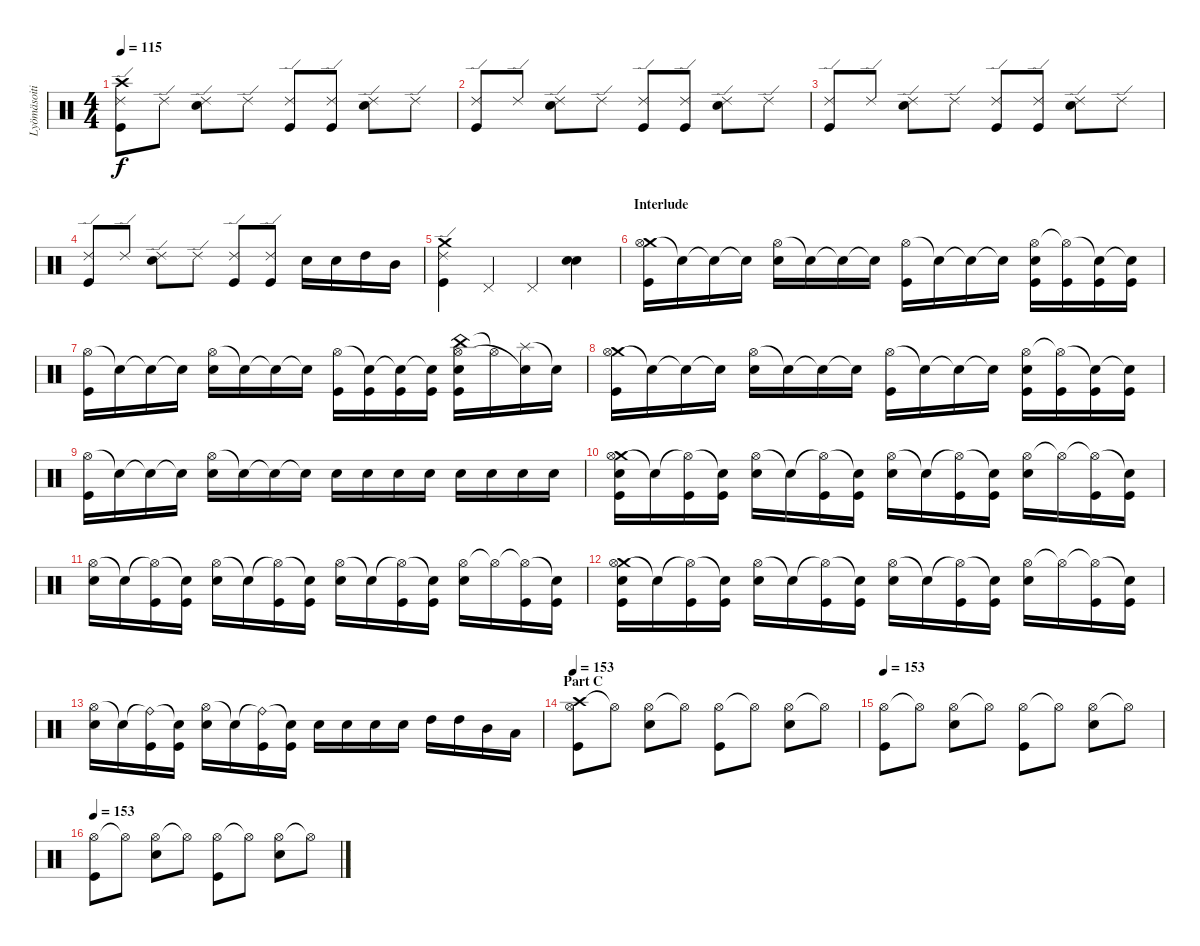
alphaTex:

\track ("Lyömäsoitin" "Lyömäsoiti") {instrument percussion}
\staff {score}
\articulation defaults
\ts (4 4)
\tempo 115
\clef neutral
\ks c
("Crash high (hit)" "Ride (edge) 2" "Kick (hit)").8{dy f} "Ride (edge) 2".8 ("Ride (edge) 2" "Snare (hit) 2").8 "Ride (edge) 2".8 ("Ride (edge) 2" "Kick (hit)").8 ("Ride (edge) 2" "Kick (hit)").8 ("Ride (edge) 2" "Snare (hit) 2").8 "Ride (edge) 2".8 |
("Ride (edge) 2" "Kick (hit)").8 "Ride (edge) 2".8 ("Ride (edge) 2" "Snare (hit) 2").8 "Ride (edge) 2".8 ("Ride (edge) 2" "Kick (hit)").8 ("Ride (edge) 2" "Kick (hit)").8 ("Ride (edge) 2" "Snare (hit) 2").8 "Ride (edge) 2".8 |
("Ride (edge) 2" "Kick (hit)").8 "Ride (edge) 2".8 ("Ride (edge) 2" "Snare (hit) 2").8 "Ride (edge) 2".8 ("Ride (edge) 2" "Kick (hit)").8 ("Ride (edge) 2" "Kick (hit)").8 ("Ride (edge) 2" "Snare (hit) 2").8 "Ride (edge) 2".8 |
("Ride (edge) 2" "Kick (hit)").8 "Ride (edge) 2".8 ("Ride (edge) 2" "Snare (hit) 2").8 "Ride (edge) 2".8 ("Ride (edge) 2" "Kick (hit)").8 ("Ride (edge) 2" "Kick (hit)").8 "Snare (hit) 2".16 "Snare (hit) 2".16 "High Tom (hit)".16 "Mid Tom (hit)".16 |
("Crash medium (hit)" "Ride (edge) 2" "Kick (hit)").4 "Pedal Hi-Hat (hit)".4 "Pedal Hi-Hat (hit)".4 ("Snare (hit) 2" "Snare (hit) 2").4 |
\section ("" "Interlude")
("Crash medium (hit)" "Hi-Hat (open)" "Kick (hit)").16 "Snare (hit)"{t}.16 "Snare (hit)"{t}.16 "Snare (hit)"{t}.16 ("Hi-Hat (open)" "Snare (hit) 2").16 "Snare (hit)"{t}.16 "Snare (hit)"{t}.16 "Snare (hit)"{t}.16 ("Hi-Hat (open)" "Kick (hit)").16 "Snare (hit)"{t}.16 "Snare (hit)"{t}.16 "Snare (hit)"{t}.16 ("Hi-Hat (open)" "Snare (hit) 2" "Kick (hit)").16 ("Hi-Hat (open)"{t} "Kick (hit)").16 ("Snare (hit)"{t} "Kick (hit)").16 ("Snare (hit)"{t} "Kick (hit)").16 |
("Hi-Hat (open)" "Kick (hit)").16 "Snare (hit)"{t}.16 "Snare (hit)"{t}.16 "Snare (hit)"{t}.16 ("Hi-Hat (open)" "Snare (hit) 2").16 "Snare (hit)"{t}.16 "Snare (hit)"{t}.16 "Snare (hit)"{t}.16 ("Hi-Hat (open)" "Kick (hit)").16 ("Snare (hit)"{t} "Kick (hit)").16 ("Snare (hit)"{t} "Kick (hit)").16 ("Snare (hit)"{t} "Kick (hit)").16 ("China (hit)" "Hi-Hat (open)" "Snare (hit) 2" "Kick (hit)").16 "Hi-Hat (open)"{t}.16 ("Splash (hit)" "Snare (hit)"{t}).16 "Snare (hit)"{t}.16 |
("Crash medium (hit)" "Hi-Hat (open)" "Kick (hit)").16 "Snare (hit)"{t}.16 "Snare (hit)"{t}.16 "Snare (hit)"{t}.16 ("Hi-Hat (open)" "Snare (hit) 2").16 "Snare (hit)"{t}.16 "Snare (hit)"{t}.16 "Snare (hit)"{t}.16 ("Hi-Hat (open)" "Kick (hit)").16 "Snare (hit)"{t}.16 "Snare (hit)"{t}.16 "Snare (hit)"{t}.16 ("Hi-Hat (open)" "Snare (hit) 2" "Kick (hit)").16 ("Hi-Hat (open)"{t} "Kick (hit)").16 ("Snare (hit)"{t} "Kick (hit)").16 ("Snare (hit)"{t} "Kick (hit)").16 |
("Hi-Hat (open)" "Kick (hit)").16 "Snare (hit)"{t}.16 "Snare (hit)"{t}.16 "Snare (hit)"{t}.16 ("Hi-Hat (open)" "Snare (hit) 2").16 "Snare (hit)"{t}.16 "Snare (hit)"{t}.16 "Snare (hit)"{t}.16 "Snare (hit) 2".16 "Snare (hit) 2".16 "Snare (hit) 2".16 "Snare (hit) 2".16 "Snare (hit) 2".16 "Snare (hit) 2".16 "Snare (hit) 2".16 "Snare (hit) 2".16 |
("Crash medium (hit)" "Hi-Hat (open)" "Snare (hit) 2" "Kick (hit)").16 "Snare (hit)"{t}.16 ("Hi-Hat (open)"{t} "Kick (hit)").16 ("Snare (hit)"{t} "Kick (hit)").16 ("Hi-Hat (open)" "Snare (hit) 2").16 "Snare (hit)"{t}.16 ("Hi-Hat (open)"{t} "Kick (hit)").16 ("Snare (hit)"{t} "Kick (hit)").16 ("Hi-Hat (open)" "Snare (hit) 2").16 "Snare (hit)"{t}.16 ("Hi-Hat (open)"{t} "Kick (hit)").16 ("Snare (hit)"{t} "Kick (hit)").16 ("Hi-Hat (open)" "Snare (hit) 2").16 "Hi-Hat (open)"{t}.16 ("Hi-Hat (open)"{t} "Kick (hit)").16 ("Snare (hit)"{t} "Kick (hit)").16 |
("Hi-Hat (open)" "Snare (hit) 2").16 "Snare (hit)"{t}.16 ("Hi-Hat (open)"{t} "Kick (hit)").16 ("Snare (hit)"{t} "Kick (hit)").16 ("Hi-Hat (open)" "Snare (hit) 2").16 "Snare (hit)"{t}.16 ("Hi-Hat (open)"{t} "Kick (hit)").16 ("Snare (hit)"{t} "Kick (hit)").16 ("Hi-Hat (open)" "Snare (hit) 2").16 "Snare (hit)"{t}.16 ("Hi-Hat (open)"{t} "Kick (hit)").16 ("Snare (hit)"{t} "Kick (hit)").16 ("Hi-Hat (open)" "Snare (hit) 2").16 "Hi-Hat (open)"{t}.16 ("Hi-Hat (open)"{t} "Kick (hit)").16 ("Snare (hit)"{t} "Kick (hit)").16 |
("Crash medium (hit)" "Hi-Hat (open)" "Snare (hit) 2" "Kick (hit)").16 "Snare (hit)"{t}.16 ("Hi-Hat (open)"{t} "Kick (hit)").16 ("Snare (hit)"{t} "Kick (hit)").16 ("Hi-Hat (open)" "Snare (hit) 2").16 "Snare (hit)"{t}.16 ("Hi-Hat (open)"{t} "Kick (hit)").16 ("Snare (hit)"{t} "Kick (hit)").16 ("Hi-Hat (open)" "Snare (hit) 2").16 "Snare (hit)"{t}.16 ("Hi-Hat (open)"{t} "Kick (hit)").16 ("Snare (hit)"{t} "Kick (hit)").16 ("Hi-Hat (open)" "Snare (hit) 2").16 "Hi-Hat (open)"{t}.16 ("Hi-Hat (open)"{t} "Kick (hit)").16 ("Snare (hit)"{t} "Kick (hit)").16 |
("Hi-Hat (open)" "Snare (hit) 2").16 "Snare (hit)"{t}.16 ("Ride (bell)"{t} "Kick (hit)").16 ("Snare (hit)"{t} "Kick (hit)").16 ("Hi-Hat (open)" "Snare (hit) 2").16 "Snare (hit)"{t}.16 ("Ride (bell)"{t} "Kick (hit)").16 ("Snare (hit)"{t} "Kick (hit)").16 "Snare (hit) 2".16 "Snare (hit) 2".16 "Snare (hit) 2".16 "Snare (hit) 2".16 "High Tom (hit)".16 "High Tom (hit)".16 "Mid Tom (hit)".16 "Low Tom (hit)".16 |
\section ("" "Part C")
\tempo 153
("Crash high (hit)" "Hi-Hat (open)" "Kick (hit)").8 "Hi-Hat (open)"{t}.8 ("Hi-Hat (open)" "Snare (hit) 2").8 "Hi-Hat (open)"{t}.8 ("Hi-Hat (open)" "Kick (hit)").8 "Hi-Hat (open)"{t}.8 ("Hi-Hat (open)" "Snare (hit) 2").8 "Hi-Hat (open)"{t}.8 |
\tempo 153
("Hi-Hat (open)" "Kick (hit)").8 "Hi-Hat (open)"{t}.8 ("Hi-Hat (open)" "Snare (hit) 2").8 "Hi-Hat (open)"{t}.8 ("Hi-Hat (open)" "Kick (hit)").8 "Hi-Hat (open)"{t}.8 ("Hi-Hat (open)" "Snare (hit) 2").8 "Hi-Hat (open)"{t}.8 |
\tempo 153
("Hi-Hat (open)" "Kick (hit)").8 "Hi-Hat (open)"{t}.8 ("Hi-Hat (open)" "Snare (hit) 2").8 "Hi-Hat (open)"{t}.8 ("Hi-Hat (open)" "Kick (hit)").8 "Hi-Hat (open)"{t}.8 ("Hi-Hat (open)" "Snare (hit) 2").8 "Hi-Hat (open)"{t}.8
